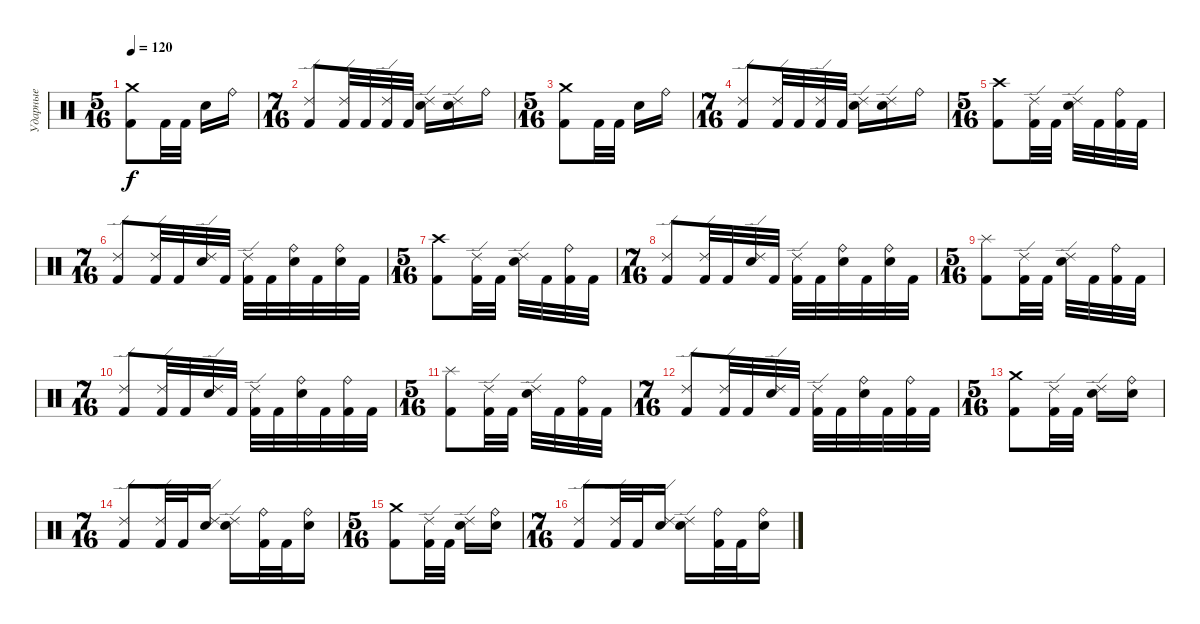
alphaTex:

\track ("Ударные" "Ударные") {instrument percussion}
\staff {score}
\articulation defaults
\ts (5 16)
\tempo 120
\clef neutral
\ks c
("Kick (hit) 2" "Crash medium (hit)").8{dy f} "Kick (hit) 2".32 "Kick (hit) 2".32 "Electric Snare (hit)".16 "Ride (bell)".16 |
\ts (7 16)
("Ride (edge) 2" "Kick (hit) 2").8 ("Ride (edge) 2" "Kick (hit) 2").32 "Kick (hit) 2".32 ("Ride (edge) 2" "Kick (hit) 2").32 "Kick (hit) 2".32 ("Ride (edge) 2" "Electric Snare (hit)").16 ("Ride (edge) 2" "Electric Snare (hit)").16 "Ride (bell)".16 |
\ts (5 16)
("Kick (hit) 2" "Crash medium (hit)").8 "Kick (hit) 2".32 "Kick (hit) 2".32 "Electric Snare (hit)".16 "Ride (bell)".16 |
\ts (7 16)
("Ride (edge) 2" "Kick (hit) 2").8 ("Ride (edge) 2" "Kick (hit) 2").32 "Kick (hit) 2".32 ("Ride (edge) 2" "Kick (hit) 2").32 "Kick (hit) 2".32 ("Ride (edge) 2" "Electric Snare (hit)").16 ("Ride (edge) 2" "Electric Snare (hit)").16 "Ride (bell)".16 |
\ts (5 16)
("Crash high (hit)" "Kick (hit) 2").8 ("Ride (edge) 2" "Kick (hit) 2").32 "Kick (hit) 2".32 ("Ride (edge) 2" "Electric Snare (hit)").32 "Kick (hit) 2".32 ("Ride (bell)" "Kick (hit) 2").32 "Kick (hit) 2".32 |
\ts (7 16)
("Ride (edge) 2" "Kick (hit) 2").8 ("Ride (edge) 2" "Kick (hit) 2").32 "Kick (hit) 2".32 ("Ride (edge) 2" "Electric Snare (hit)").32 "Kick (hit) 2".32 ("Ride (edge) 2" "Kick (hit) 2").32 "Kick (hit) 2".32 ("Ride (bell)" "Electric Snare (hit)").32 "Kick (hit) 2".32 ("Ride (bell)" "Electric Snare (hit)").32 "Kick (hit) 2".32 |
\ts (5 16)
("Crash high (hit)" "Kick (hit) 2").8 ("Ride (edge) 2" "Kick (hit) 2").32 "Kick (hit) 2".32 ("Ride (edge) 2" "Electric Snare (hit)").32 "Kick (hit) 2".32 ("Ride (bell)" "Kick (hit) 2").32 "Kick (hit) 2".32 |
\ts (7 16)
("Ride (edge) 2" "Kick (hit) 2").8 ("Ride (edge) 2" "Kick (hit) 2").32 "Kick (hit) 2".32 ("Ride (edge) 2" "Electric Snare (hit)").32 "Kick (hit) 2".32 ("Ride (edge) 2" "Kick (hit) 2").32 "Kick (hit) 2".32 ("Ride (bell)" "Electric Snare (hit)").32 "Kick (hit) 2".32 ("Ride (bell)" "Electric Snare (hit)").32 "Kick (hit) 2".32 |
\ts (5 16)
("Splash (hit)" "Kick (hit) 2").8 ("Ride (edge) 2" "Kick (hit) 2").32 "Kick (hit) 2".32 ("Ride (edge) 2" "Electric Snare (hit)").32 "Kick (hit) 2".32 ("Ride (bell)" "Kick (hit) 2").32 "Kick (hit) 2".32 |
\ts (7 16)
("Ride (edge) 2" "Kick (hit) 2").8 ("Ride (edge) 2" "Kick (hit) 2").32 "Kick (hit) 2".32 ("Ride (edge) 2" "Electric Snare (hit)").32 "Kick (hit) 2".32 ("Ride (edge) 2" "Kick (hit) 2").32 "Kick (hit) 2".32 ("Ride (bell)" "Electric Snare (hit)").32 "Kick (hit) 2".32 ("Ride (bell)" "Kick (hit) 2").32 "Kick (hit) 2".32 |
\ts (5 16)
("Splash (hit)" "Kick (hit) 2").8 ("Ride (edge) 2" "Kick (hit) 2").32 "Kick (hit) 2".32 ("Ride (edge) 2" "Electric Snare (hit)").32 "Kick (hit) 2".32 ("Ride (bell)" "Kick (hit) 2").32 "Kick (hit) 2".32 |
\ts (7 16)
("Ride (edge) 2" "Kick (hit) 2").8 ("Ride (edge) 2" "Kick (hit) 2").32 "Kick (hit) 2".32 ("Ride (edge) 2" "Electric Snare (hit)").32 "Kick (hit) 2".32 ("Ride (edge) 2" "Kick (hit) 2").32 "Kick (hit) 2".32 ("Ride (bell)" "Electric Snare (hit)").32 "Kick (hit) 2".32 ("Ride (bell)" "Kick (hit) 2").32 "Kick (hit) 2".32 |
\ts (5 16)
("Crash medium (hit)" "Kick (hit) 2").8 ("Ride (edge) 2" "Kick (hit) 2").32 "Kick (hit) 2".32 ("Ride (edge) 2" "Electric Snare (hit)").16 ("Ride (bell)" "Electric Snare (hit)").16 |
\ts (7 16)
("Ride (edge) 2" "Kick (hit) 2").8 ("Ride (edge) 2" "Kick (hit) 2").32 "Kick (hit) 2".32 ("Ride (edge) 2" "Electric Snare (hit)").16 ("Ride (edge) 2" "Electric Snare (hit)").16 ("Ride (bell)" "Kick (hit) 2").32 "Kick (hit) 2".32 ("Ride (bell)" "Electric Snare (hit)").16 |
\ts (5 16)
("Crash medium (hit)" "Kick (hit) 2").8 ("Ride (edge) 2" "Kick (hit) 2").32 "Kick (hit) 2".32 ("Ride (edge) 2" "Electric Snare (hit)").16 ("Ride (bell)" "Electric Snare (hit)").16 |
\ts (7 16)
("Ride (edge) 2" "Kick (hit) 2").8 ("Ride (edge) 2" "Kick (hit) 2").32 "Kick (hit) 2".32 ("Ride (edge) 2" "Electric Snare (hit)").16 ("Ride (edge) 2" "Electric Snare (hit)").16 ("Ride (bell)" "Kick (hit) 2").32 "Kick (hit) 2".32 ("Ride (bell)" "Electric Snare (hit)").16
